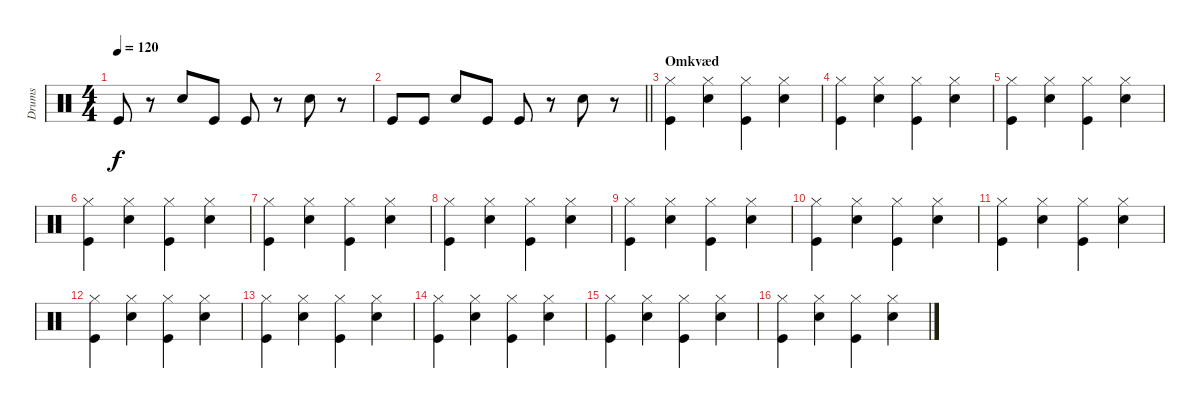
\track ("Drums" "Drums") {instrument percussion}
\staff {score}
\articulation defaults
\ts (4 4)
\tempo 120
\clef neutral
\ks c "Kick (hit)".8{dy f}
r.8 "Snare (hit) 2".8 "Kick (hit)".8 "Kick (hit)".8 r.8 "Snare (hit) 2".8 r.8 |
\barLineRight lightlight "Kick (hit)".8 "Kick (hit)".8 "Snare (hit) 2".8 "Kick (hit)".8 "Kick (hit)".8
r.8 "Snare (hit) 2".8 r.8 |
\section ("" "Omkvæd")
("Hi-Hat (closed)" "Kick (hit)").4 ("Hi-Hat (closed)" "Snare (hit) 2").4 ("Hi-Hat (closed)" "Kick (hit)").4 ("Hi-Hat (closed)" "Snare (hit) 2").4 |
("Hi-Hat (closed)" "Kick (hit)").4 ("Hi-Hat (closed)" "Snare (hit) 2").4 ("Hi-Hat (closed)" "Kick (hit)").4 ("Hi-Hat (closed)" "Snare (hit) 2").4 |
("Hi-Hat (closed)" "Kick (hit)").4 ("Hi-Hat (closed)" "Snare (hit) 2").4 ("Hi-Hat (closed)" "Kick (hit)").4 ("Hi-Hat (closed)" "Snare (hit) 2").4 |
("Hi-Hat (closed)" "Kick (hit)").4 ("Hi-Hat (closed)" "Snare (hit) 2").4 ("Hi-Hat (closed)" "Kick (hit)").4 ("Hi-Hat (closed)" "Snare (hit) 2").4 |
("Hi-Hat (closed)" "Kick (hit)").4 ("Hi-Hat (closed)" "Snare (hit) 2").4 ("Hi-Hat (closed)" "Kick (hit)").4 ("Hi-Hat (closed)" "Snare (hit) 2").4 |
("Hi-Hat (closed)" "Kick (hit)").4 ("Hi-Hat (closed)" "Snare (hit) 2").4 ("Hi-Hat (closed)" "Kick (hit)").4 ("Hi-Hat (closed)" "Snare (hit) 2").4 |
("Hi-Hat (closed)" "Kick (hit)").4 ("Hi-Hat (closed)" "Snare (hit) 2").4 ("Hi-Hat (closed)" "Kick (hit)").4 ("Hi-Hat (closed)" "Snare (hit) 2").4 |
("Hi-Hat (closed)" "Kick (hit)").4 ("Hi-Hat (closed)" "Snare (hit) 2").4 ("Hi-Hat (closed)" "Kick (hit)").4 ("Hi-Hat (closed)" "Snare (hit) 2").4 |
("Hi-Hat (closed)" "Kick (hit)").4 ("Hi-Hat (closed)" "Snare (hit) 2").4 ("Hi-Hat (closed)" "Kick (hit)").4 ("Hi-Hat (closed)" "Snare (hit) 2").4 |
("Hi-Hat (closed)" "Kick (hit)").4 ("Hi-Hat (closed)" "Snare (hit) 2").4 ("Hi-Hat (closed)" "Kick (hit)").4 ("Hi-Hat (closed)" "Snare (hit) 2").4 |
("Hi-Hat (closed)" "Kick (hit)").4 ("Hi-Hat (closed)" "Snare (hit) 2").4 ("Hi-Hat (closed)" "Kick (hit)").4 ("Hi-Hat (closed)" "Snare (hit) 2").4 |
("Hi-Hat (closed)" "Kick (hit)").4 ("Hi-Hat (closed)" "Snare (hit) 2").4 ("Hi-Hat (closed)" "Kick (hit)").4 ("Hi-Hat (closed)" "Snare (hit) 2").4 |
("Hi-Hat (closed)" "Kick (hit)").4 ("Hi-Hat (closed)" "Snare (hit) 2").4 ("Hi-Hat (closed)" "Kick (hit)").4 ("Hi-Hat (closed)" "Snare (hit) 2").4 |
("Hi-Hat (closed)" "Kick (hit)").4 ("Hi-Hat (closed)" "Snare (hit) 2").4 ("Hi-Hat (closed)" "Kick (hit)").4 ("Hi-Hat (closed)" "Snare (hit) 2").4
